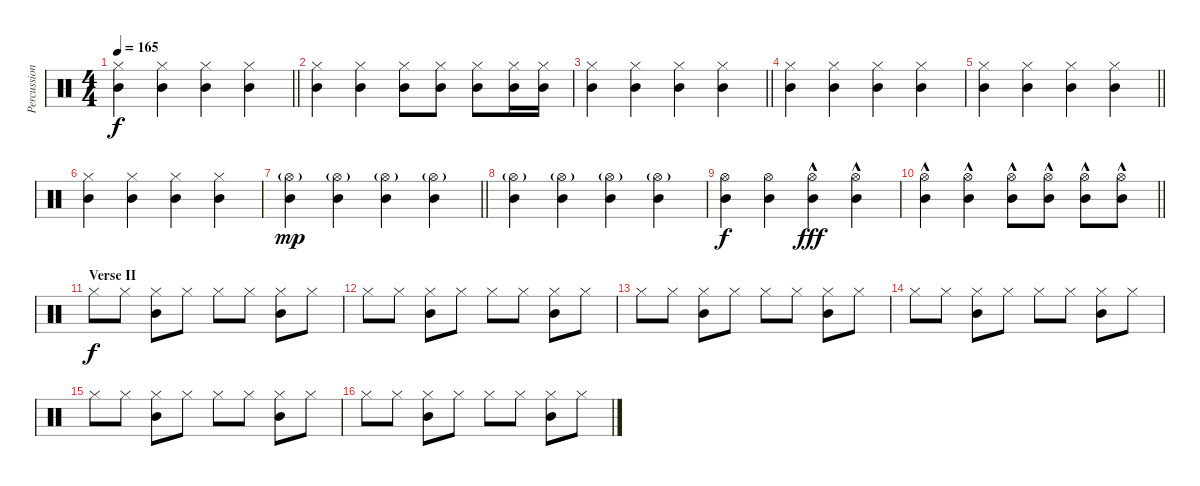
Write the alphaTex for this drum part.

\track ("Percussion Improvisation" "Percussion") {instrument percussion}
\staff {score}
\articulation defaults
\ts (4 4)
\tempo 165
\clef neutral
\barLineRight lightlight
\ks c
("Hi-Hat (closed)" "Mid Tom (hit)").4{dy f} ("Mid Tom (hit)" "Hi-Hat (closed)").4 ("Hi-Hat (closed)" "Mid Tom (hit)").4 ("Hi-Hat (closed)" "Mid Tom (hit)").4 |
("Hi-Hat (closed)" "Mid Tom (hit)").4 ("Mid Tom (hit)" "Hi-Hat (closed)").4 ("Hi-Hat (closed)" "Mid Tom (hit)").8 ("Hi-Hat (closed)" "Mid Tom (hit)").8 ("Hi-Hat (closed)" "Mid Tom (hit)").8 ("Hi-Hat (closed)" "Mid Tom (hit)").16 ("Hi-Hat (closed)" "Mid Tom (hit)").16 |
\barLineRight lightlight
("Hi-Hat (closed)" "Mid Tom (hit)").4 ("Mid Tom (hit)" "Hi-Hat (closed)").4 ("Hi-Hat (closed)" "Mid Tom (hit)").4 ("Hi-Hat (closed)" "Mid Tom (hit)").4 |
("Hi-Hat (closed)" "Mid Tom (hit)").4 ("Mid Tom (hit)" "Hi-Hat (closed)").4 ("Hi-Hat (closed)" "Mid Tom (hit)").4 ("Hi-Hat (closed)" "Mid Tom (hit)").4 |
\barLineRight lightlight
("Hi-Hat (closed)" "Mid Tom (hit)").4 ("Mid Tom (hit)" "Hi-Hat (closed)").4 ("Hi-Hat (closed)" "Mid Tom (hit)").4 ("Hi-Hat (closed)" "Mid Tom (hit)").4 |
("Hi-Hat (closed)" "Mid Tom (hit)").4 ("Mid Tom (hit)" "Hi-Hat (closed)").4 ("Hi-Hat (closed)" "Mid Tom (hit)").4 ("Hi-Hat (closed)" "Mid Tom (hit)").4 |
\barLineRight lightlight
("Hi-Hat (open)"{g} "Mid Tom (hit)").4{dy mp} ("Mid Tom (hit)" "Hi-Hat (open)"{g}).4 ("Hi-Hat (open)"{g} "Mid Tom (hit)").4 ("Hi-Hat (open)"{g} "Mid Tom (hit)").4 |
("Hi-Hat (open)"{g} "Mid Tom (hit)").4 ("Mid Tom (hit)" "Hi-Hat (open)"{g}).4 ("Hi-Hat (open)"{g} "Mid Tom (hit)").4 ("Hi-Hat (open)"{g} "Mid Tom (hit)").4 |
("Hi-Hat (open)" "Mid Tom (hit)").4{dy f} ("Mid Tom (hit)" "Hi-Hat (open)").4 ("Hi-Hat (open)"{hac} "Mid Tom (hit)").4{dy fff} ("Hi-Hat (open)"{hac} "Mid Tom (hit)").4 |
\barLineRight lightlight
("Hi-Hat (open)"{hac} "Mid Tom (hit)").4 ("Mid Tom (hit)"{hac} "Hi-Hat (open)").4 ("Hi-Hat (open)"{hac} "Mid Tom (hit)").8 ("Hi-Hat (open)"{hac} "Mid Tom (hit)").8 ("Hi-Hat (open)"{hac} "Mid Tom (hit)").8 ("Hi-Hat (open)"{hac} "Mid Tom (hit)").8 |
\section ("" "Verse II")
"Hi-Hat (closed)".8{dy f} "Hi-Hat (closed)".8 ("Hi-Hat (closed)" "Mid Tom (hit)").8 "Hi-Hat (closed)".8 "Hi-Hat (closed)".8 "Hi-Hat (closed)".8 ("Hi-Hat (closed)" "Mid Tom (hit)").8 "Hi-Hat (closed)".8 |
"Hi-Hat (closed)".8 "Hi-Hat (closed)".8 ("Hi-Hat (closed)" "Mid Tom (hit)").8 "Hi-Hat (closed)".8 "Hi-Hat (closed)".8 "Hi-Hat (closed)".8 ("Hi-Hat (closed)" "Mid Tom (hit)").8 "Hi-Hat (closed)".8 |
"Hi-Hat (closed)".8 "Hi-Hat (closed)".8 ("Hi-Hat (closed)" "Mid Tom (hit)").8 "Hi-Hat (closed)".8 "Hi-Hat (closed)".8 "Hi-Hat (closed)".8 ("Hi-Hat (closed)" "Mid Tom (hit)").8 "Hi-Hat (closed)".8 |
"Hi-Hat (closed)".8 "Hi-Hat (closed)".8 ("Hi-Hat (closed)" "Mid Tom (hit)").8 "Hi-Hat (closed)".8 "Hi-Hat (closed)".8 "Hi-Hat (closed)".8 ("Hi-Hat (closed)" "Mid Tom (hit)").8 "Hi-Hat (closed)".8 |
"Hi-Hat (closed)".8 "Hi-Hat (closed)".8 ("Hi-Hat (closed)" "Mid Tom (hit)").8 "Hi-Hat (closed)".8 "Hi-Hat (closed)".8 "Hi-Hat (closed)".8 ("Hi-Hat (closed)" "Mid Tom (hit)").8 "Hi-Hat (closed)".8 |
"Hi-Hat (closed)".8 "Hi-Hat (closed)".8 ("Hi-Hat (closed)" "Mid Tom (hit)").8 "Hi-Hat (closed)".8 "Hi-Hat (closed)".8 "Hi-Hat (closed)".8 ("Hi-Hat (closed)" "Mid Tom (hit)").8 "Hi-Hat (closed)".8
